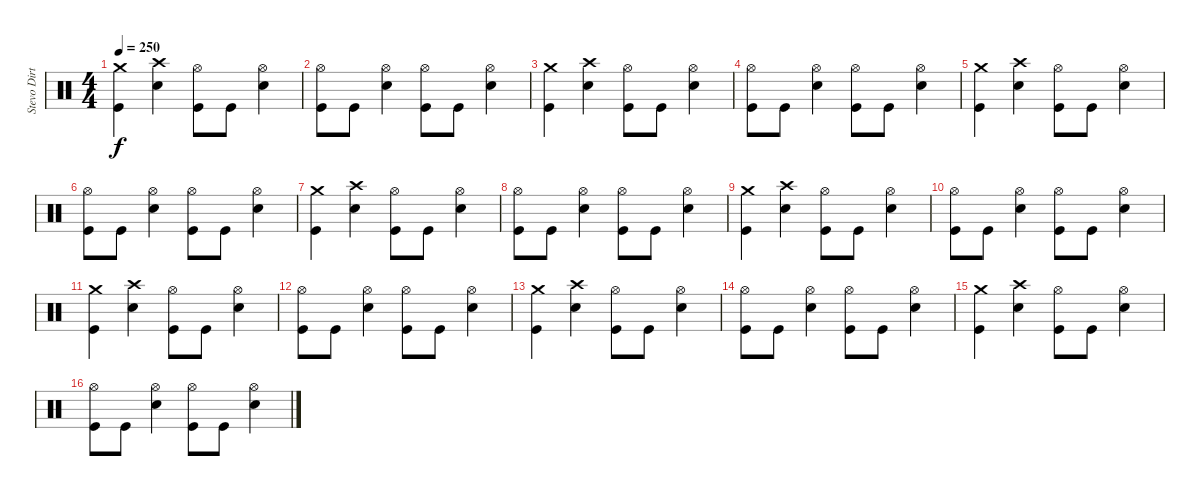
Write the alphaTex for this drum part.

\track ("Stevo Dirty Poo" "Stevo Dirt") {instrument percussion}
\staff {score}
\articulation defaults
\ts (4 4)
\tempo 250
\clef neutral
\ks c
("Crash medium (hit)" "Kick (hit)").4{dy f} ("Crash high (hit)" "Snare (hit) 2").4 ("Hi-Hat (open)" "Kick (hit)").8 "Kick (hit)".8 ("Hi-Hat (open)" "Snare (hit) 2").4 |
("Hi-Hat (open)" "Kick (hit)").8 "Kick (hit)".8 ("Hi-Hat (open)" "Snare (hit) 2").4 ("Hi-Hat (open)" "Kick (hit)").8 "Kick (hit)".8 ("Hi-Hat (open)" "Snare (hit) 2").4 |
("Crash medium (hit)" "Kick (hit)").4 ("Crash high (hit)" "Snare (hit) 2").4 ("Hi-Hat (open)" "Kick (hit)").8 "Kick (hit)".8 ("Hi-Hat (open)" "Snare (hit) 2").4 |
("Hi-Hat (open)" "Kick (hit)").8 "Kick (hit)".8 ("Hi-Hat (open)" "Snare (hit) 2").4 ("Hi-Hat (open)" "Kick (hit)").8 "Kick (hit)".8 ("Hi-Hat (open)" "Snare (hit) 2").4 |
("Crash medium (hit)" "Kick (hit)").4 ("Crash high (hit)" "Snare (hit) 2").4 ("Hi-Hat (open)" "Kick (hit)").8 "Kick (hit)".8 ("Hi-Hat (open)" "Snare (hit) 2").4 |
("Hi-Hat (open)" "Kick (hit)").8 "Kick (hit)".8 ("Hi-Hat (open)" "Snare (hit) 2").4 ("Hi-Hat (open)" "Kick (hit)").8 "Kick (hit)".8 ("Hi-Hat (open)" "Snare (hit) 2").4 |
("Crash medium (hit)" "Kick (hit)").4 ("Crash high (hit)" "Snare (hit) 2").4 ("Hi-Hat (open)" "Kick (hit)").8 "Kick (hit)".8 ("Hi-Hat (open)" "Snare (hit) 2").4 |
("Hi-Hat (open)" "Kick (hit)").8 "Kick (hit)".8 ("Hi-Hat (open)" "Snare (hit) 2").4 ("Hi-Hat (open)" "Kick (hit)").8 "Kick (hit)".8 ("Hi-Hat (open)" "Snare (hit) 2").4 |
("Crash medium (hit)" "Kick (hit)").4 ("Crash high (hit)" "Snare (hit) 2").4 ("Hi-Hat (open)" "Kick (hit)").8 "Kick (hit)".8 ("Hi-Hat (open)" "Snare (hit) 2").4 |
("Hi-Hat (open)" "Kick (hit)").8 "Kick (hit)".8 ("Hi-Hat (open)" "Snare (hit) 2").4 ("Hi-Hat (open)" "Kick (hit)").8 "Kick (hit)".8 ("Hi-Hat (open)" "Snare (hit) 2").4 |
("Crash medium (hit)" "Kick (hit)").4 ("Crash high (hit)" "Snare (hit) 2").4 ("Hi-Hat (open)" "Kick (hit)").8 "Kick (hit)".8 ("Hi-Hat (open)" "Snare (hit) 2").4 |
("Hi-Hat (open)" "Kick (hit)").8 "Kick (hit)".8 ("Hi-Hat (open)" "Snare (hit) 2").4 ("Hi-Hat (open)" "Kick (hit)").8 "Kick (hit)".8 ("Hi-Hat (open)" "Snare (hit) 2").4 |
("Crash medium (hit)" "Kick (hit)").4 ("Crash high (hit)" "Snare (hit) 2").4 ("Hi-Hat (open)" "Kick (hit)").8 "Kick (hit)".8 ("Hi-Hat (open)" "Snare (hit) 2").4 |
("Hi-Hat (open)" "Kick (hit)").8 "Kick (hit)".8 ("Hi-Hat (open)" "Snare (hit) 2").4 ("Hi-Hat (open)" "Kick (hit)").8 "Kick (hit)".8 ("Hi-Hat (open)" "Snare (hit) 2").4 |
("Crash medium (hit)" "Kick (hit)").4 ("Crash high (hit)" "Snare (hit) 2").4 ("Hi-Hat (open)" "Kick (hit)").8 "Kick (hit)".8 ("Hi-Hat (open)" "Snare (hit) 2").4 |
("Hi-Hat (open)" "Kick (hit)").8 "Kick (hit)".8 ("Hi-Hat (open)" "Snare (hit) 2").4 ("Hi-Hat (open)" "Kick (hit)").8 "Kick (hit)".8 ("Hi-Hat (open)" "Snare (hit) 2").4
